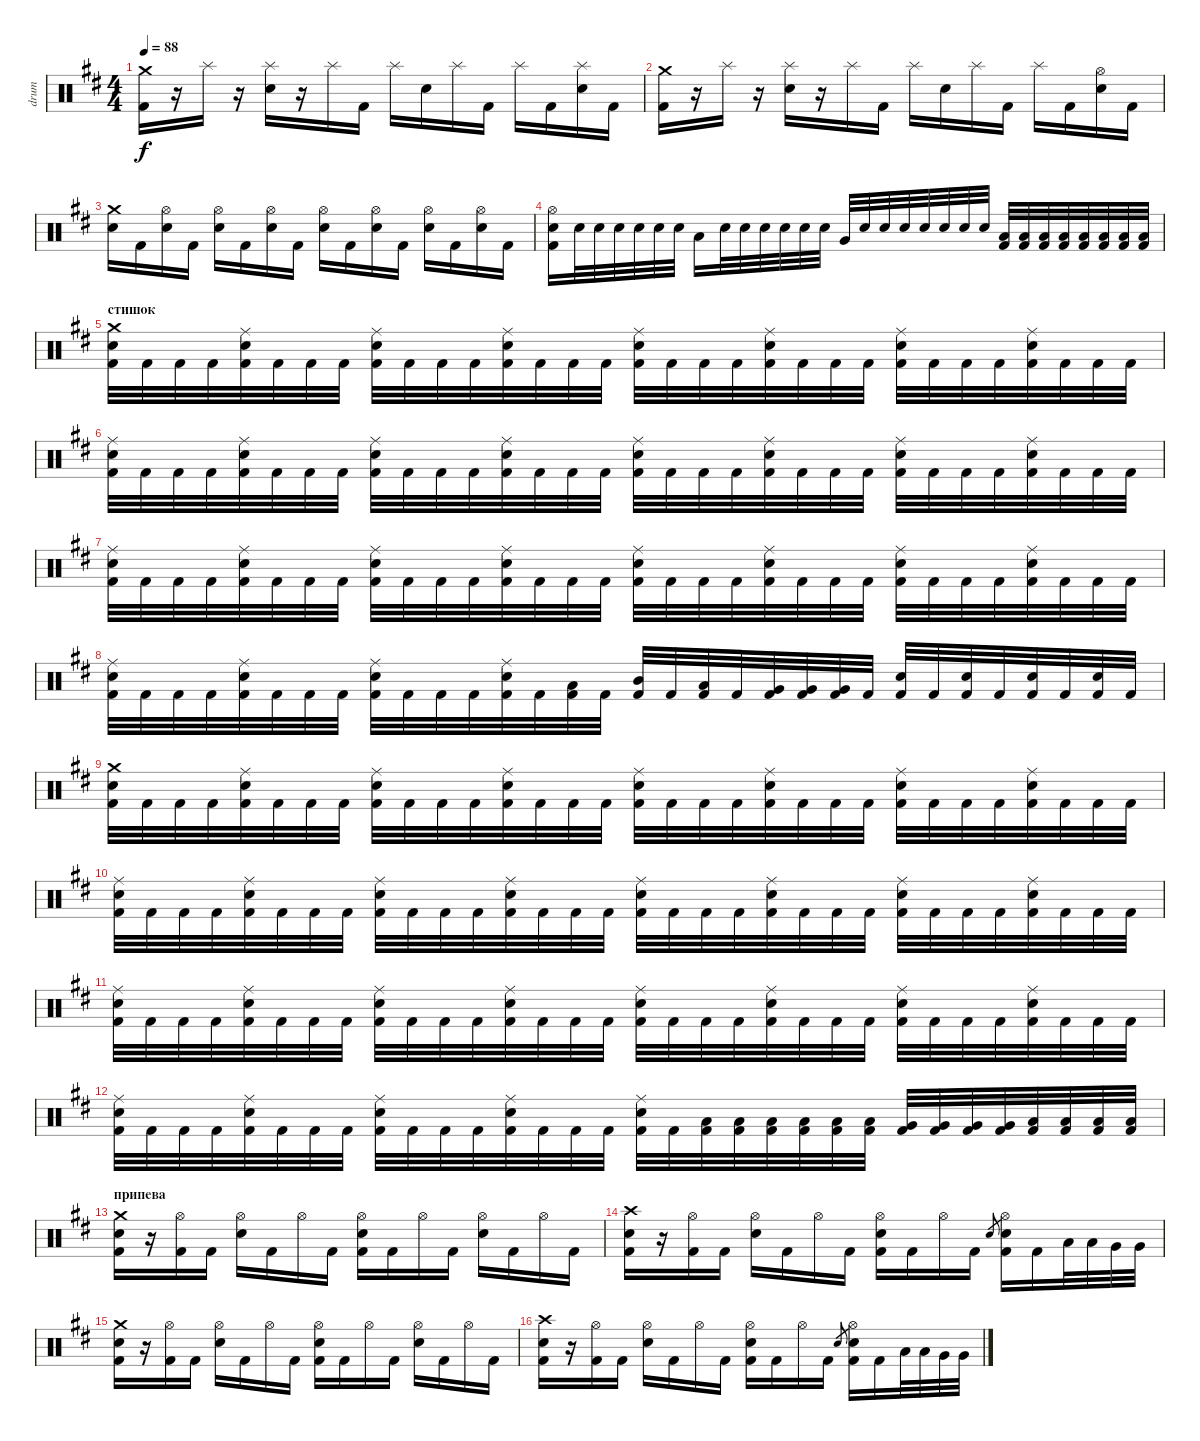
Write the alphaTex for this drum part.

\track ("drum" "drum") {instrument percussion}
\staff {score}
\articulation defaults
\ts (4 4)
\tempo 88
\clef neutral
\ks bminor
("Crash medium (hit)" "Kick (hit) 2").16{dy f} r.16 "Splash (hit)".16 r.16 ("Splash (hit)" "Electric Snare (hit)").16 r.16 "Splash (hit)".16 "Kick (hit) 2".16 "Splash (hit)".16 "Electric Snare (hit)".16 "Splash (hit)".16 "Kick (hit) 2".16 "Splash (hit)".16 "Kick (hit) 2".16 ("Splash (hit)" "Electric Snare (hit)").16 "Kick (hit) 2".16 |
("Crash medium (hit)" "Kick (hit) 2").16 r.16 "Splash (hit)".16 r.16 ("Splash (hit)" "Electric Snare (hit)").16 r.16 "Splash (hit)".16 "Kick (hit) 2".16 "Splash (hit)".16 "Electric Snare (hit)".16 "Splash (hit)".16 "Kick (hit) 2".16 "Splash (hit)".16 "Kick (hit) 2".16 ("Hi-Hat (open)" "Electric Snare (hit)").16 "Kick (hit) 2".16 |
("Crash medium (hit)" "Electric Snare (hit)").16 "Kick (hit) 2".16 ("Hi-Hat (open)" "Electric Snare (hit)").16 "Kick (hit) 2".16 ("Hi-Hat (open)" "Electric Snare (hit)").16 "Kick (hit) 2".16 ("Hi-Hat (open)" "Electric Snare (hit)").16 "Kick (hit) 2".16 ("Hi-Hat (open)" "Electric Snare (hit)").16 "Kick (hit) 2".16 ("Hi-Hat (open)" "Electric Snare (hit)").16 "Kick (hit) 2".16 ("Hi-Hat (open)" "Electric Snare (hit)").16 "Kick (hit) 2".16 ("Hi-Hat (open)" "Electric Snare (hit)").16 "Kick (hit) 2".16 |
("Hi-Hat (open)" "Electric Snare (hit)" "Kick (hit) 2").16 "Electric Snare (hit)".32 "Electric Snare (hit)".32 "Electric Snare (hit)".32 "Electric Snare (hit)".32 "Electric Snare (hit)".32 "Electric Snare (hit)".32 "Low Tom (hit)".16 "Electric Snare (hit)".32 "Electric Snare (hit)".32 "Electric Snare (hit)".32 "Electric Snare (hit)".32 "Electric Snare (hit)".32 "Electric Snare (hit)".32 "Very Low Tom (hit)".32 "Electric Snare (hit)".32 "Electric Snare (hit)".32 "Electric Snare (hit)".32 "Electric Snare (hit)".32 "Electric Snare (hit)".32 "Electric Snare (hit)".32 "Electric Snare (hit)".32 ("Low Floor Tom (hit)" "Kick (hit) 2").32 ("Low Floor Tom (hit)" "Kick (hit) 2").32 ("Low Floor Tom (hit)" "Kick (hit) 2").32 ("Low Floor Tom (hit)" "Kick (hit) 2").32 ("Low Floor Tom (hit)" "Kick (hit) 2").32 ("Low Floor Tom (hit)" "Kick (hit) 2").32 ("Low Floor Tom (hit)" "Kick (hit) 2").32 ("Low Floor Tom (hit)" "Kick (hit) 2").32 |
\section ("" "стишок")
("Crash medium (hit)" "Electric Snare (hit)" "Kick (hit) 2").32 "Kick (hit) 2".32 "Kick (hit) 2".32 "Kick (hit) 2".32 ("Ride (middle)" "Electric Snare (hit)" "Kick (hit) 2").32 "Kick (hit) 2".32 "Kick (hit) 2".32 "Kick (hit) 2".32 ("Ride (middle)" "Electric Snare (hit)" "Kick (hit) 2").32 "Kick (hit) 2".32 "Kick (hit) 2".32 "Kick (hit) 2".32 ("Ride (middle)" "Electric Snare (hit)" "Kick (hit) 2").32 "Kick (hit) 2".32 "Kick (hit) 2".32 "Kick (hit) 2".32 ("Ride (middle)" "Electric Snare (hit)" "Kick (hit) 2").32 "Kick (hit) 2".32 "Kick (hit) 2".32 "Kick (hit) 2".32 ("Ride (middle)" "Electric Snare (hit)" "Kick (hit) 2").32 "Kick (hit) 2".32 "Kick (hit) 2".32 "Kick (hit) 2".32 ("Ride (middle)" "Electric Snare (hit)" "Kick (hit) 2").32 "Kick (hit) 2".32 "Kick (hit) 2".32 "Kick (hit) 2".32 ("Ride (middle)" "Electric Snare (hit)" "Kick (hit) 2").32 "Kick (hit) 2".32 "Kick (hit) 2".32 "Kick (hit) 2".32 |
("Ride (middle)" "Electric Snare (hit)" "Kick (hit) 2").32 "Kick (hit) 2".32 "Kick (hit) 2".32 "Kick (hit) 2".32 ("Ride (middle)" "Electric Snare (hit)" "Kick (hit) 2").32 "Kick (hit) 2".32 "Kick (hit) 2".32 "Kick (hit) 2".32 ("Ride (middle)" "Electric Snare (hit)" "Kick (hit) 2").32 "Kick (hit) 2".32 "Kick (hit) 2".32 "Kick (hit) 2".32 ("Ride (middle)" "Electric Snare (hit)" "Kick (hit) 2").32 "Kick (hit) 2".32 "Kick (hit) 2".32 "Kick (hit) 2".32 ("Ride (middle)" "Electric Snare (hit)" "Kick (hit) 2").32 "Kick (hit) 2".32 "Kick (hit) 2".32 "Kick (hit) 2".32 ("Ride (middle)" "Electric Snare (hit)" "Kick (hit) 2").32 "Kick (hit) 2".32 "Kick (hit) 2".32 "Kick (hit) 2".32 ("Ride (middle)" "Electric Snare (hit)" "Kick (hit) 2").32 "Kick (hit) 2".32 "Kick (hit) 2".32 "Kick (hit) 2".32 ("Ride (middle)" "Electric Snare (hit)" "Kick (hit) 2").32 "Kick (hit) 2".32 "Kick (hit) 2".32 "Kick (hit) 2".32 |
("Ride (middle)" "Electric Snare (hit)" "Kick (hit) 2").32 "Kick (hit) 2".32 "Kick (hit) 2".32 "Kick (hit) 2".32 ("Ride (middle)" "Electric Snare (hit)" "Kick (hit) 2").32 "Kick (hit) 2".32 "Kick (hit) 2".32 "Kick (hit) 2".32 ("Ride (middle)" "Electric Snare (hit)" "Kick (hit) 2").32 "Kick (hit) 2".32 "Kick (hit) 2".32 "Kick (hit) 2".32 ("Ride (middle)" "Electric Snare (hit)" "Kick (hit) 2").32 "Kick (hit) 2".32 "Kick (hit) 2".32 "Kick (hit) 2".32 ("Ride (middle)" "Electric Snare (hit)" "Kick (hit) 2").32 "Kick (hit) 2".32 "Kick (hit) 2".32 "Kick (hit) 2".32 ("Ride (middle)" "Electric Snare (hit)" "Kick (hit) 2").32 "Kick (hit) 2".32 "Kick (hit) 2".32 "Kick (hit) 2".32 ("Ride (middle)" "Electric Snare (hit)" "Kick (hit) 2").32 "Kick (hit) 2".32 "Kick (hit) 2".32 "Kick (hit) 2".32 ("Ride (middle)" "Electric Snare (hit)" "Kick (hit) 2").32 "Kick (hit) 2".32 "Kick (hit) 2".32 "Kick (hit) 2".32 |
("Ride (middle)" "Electric Snare (hit)" "Kick (hit) 2").32 "Kick (hit) 2".32 "Kick (hit) 2".32 "Kick (hit) 2".32 ("Ride (middle)" "Electric Snare (hit)" "Kick (hit) 2").32 "Kick (hit) 2".32 "Kick (hit) 2".32 "Kick (hit) 2".32 ("Ride (middle)" "Electric Snare (hit)" "Kick (hit) 2").32 "Kick (hit) 2".32 "Kick (hit) 2".32 "Kick (hit) 2".32 ("Ride (middle)" "Electric Snare (hit)" "Kick (hit) 2").32 "Kick (hit) 2".32 ("Low Tom (hit)" "Kick (hit) 2").32 "Kick (hit) 2".32 ("Mid Tom (hit)" "Kick (hit) 2").32 "Kick (hit) 2".32 ("Low Tom (hit)" "Kick (hit) 2").32 "Kick (hit) 2".32 ("Very Low Tom (hit)" "Kick (hit) 2").32 ("Very Low Tom (hit)" "Kick (hit) 2").32 ("Very Low Tom (hit)" "Kick (hit) 2").32 "Kick (hit) 2".32 ("Electric Snare (hit)" "Kick (hit) 2").32 "Kick (hit) 2".32 ("Electric Snare (hit)" "Kick (hit) 2").32 "Kick (hit) 2".32 ("Electric Snare (hit)" "Kick (hit) 2").32 "Kick (hit) 2".32 ("Electric Snare (hit)" "Kick (hit) 2").32 "Kick (hit) 2".32 |
("Crash medium (hit)" "Electric Snare (hit)" "Kick (hit) 2").32 "Kick (hit) 2".32 "Kick (hit) 2".32 "Kick (hit) 2".32 ("Ride (middle)" "Electric Snare (hit)" "Kick (hit) 2").32 "Kick (hit) 2".32 "Kick (hit) 2".32 "Kick (hit) 2".32 ("Ride (middle)" "Electric Snare (hit)" "Kick (hit) 2").32 "Kick (hit) 2".32 "Kick (hit) 2".32 "Kick (hit) 2".32 ("Ride (middle)" "Electric Snare (hit)" "Kick (hit) 2").32 "Kick (hit) 2".32 "Kick (hit) 2".32 "Kick (hit) 2".32 ("Ride (middle)" "Electric Snare (hit)" "Kick (hit) 2").32 "Kick (hit) 2".32 "Kick (hit) 2".32 "Kick (hit) 2".32 ("Ride (middle)" "Electric Snare (hit)" "Kick (hit) 2").32 "Kick (hit) 2".32 "Kick (hit) 2".32 "Kick (hit) 2".32 ("Ride (middle)" "Electric Snare (hit)" "Kick (hit) 2").32 "Kick (hit) 2".32 "Kick (hit) 2".32 "Kick (hit) 2".32 ("Ride (middle)" "Electric Snare (hit)" "Kick (hit) 2").32 "Kick (hit) 2".32 "Kick (hit) 2".32 "Kick (hit) 2".32 |
("Ride (middle)" "Electric Snare (hit)" "Kick (hit) 2").32 "Kick (hit) 2".32 "Kick (hit) 2".32 "Kick (hit) 2".32 ("Ride (middle)" "Electric Snare (hit)" "Kick (hit) 2").32 "Kick (hit) 2".32 "Kick (hit) 2".32 "Kick (hit) 2".32 ("Ride (middle)" "Electric Snare (hit)" "Kick (hit) 2").32 "Kick (hit) 2".32 "Kick (hit) 2".32 "Kick (hit) 2".32 ("Ride (middle)" "Electric Snare (hit)" "Kick (hit) 2").32 "Kick (hit) 2".32 "Kick (hit) 2".32 "Kick (hit) 2".32 ("Ride (middle)" "Electric Snare (hit)" "Kick (hit) 2").32 "Kick (hit) 2".32 "Kick (hit) 2".32 "Kick (hit) 2".32 ("Ride (middle)" "Electric Snare (hit)" "Kick (hit) 2").32 "Kick (hit) 2".32 "Kick (hit) 2".32 "Kick (hit) 2".32 ("Ride (middle)" "Electric Snare (hit)" "Kick (hit) 2").32 "Kick (hit) 2".32 "Kick (hit) 2".32 "Kick (hit) 2".32 ("Ride (middle)" "Electric Snare (hit)" "Kick (hit) 2").32 "Kick (hit) 2".32 "Kick (hit) 2".32 "Kick (hit) 2".32 |
("Ride (middle)" "Electric Snare (hit)" "Kick (hit) 2").32 "Kick (hit) 2".32 "Kick (hit) 2".32 "Kick (hit) 2".32 ("Ride (middle)" "Electric Snare (hit)" "Kick (hit) 2").32 "Kick (hit) 2".32 "Kick (hit) 2".32 "Kick (hit) 2".32 ("Ride (middle)" "Electric Snare (hit)" "Kick (hit) 2").32 "Kick (hit) 2".32 "Kick (hit) 2".32 "Kick (hit) 2".32 ("Ride (middle)" "Electric Snare (hit)" "Kick (hit) 2").32 "Kick (hit) 2".32 "Kick (hit) 2".32 "Kick (hit) 2".32 ("Ride (middle)" "Electric Snare (hit)" "Kick (hit) 2").32 "Kick (hit) 2".32 "Kick (hit) 2".32 "Kick (hit) 2".32 ("Ride (middle)" "Electric Snare (hit)" "Kick (hit) 2").32 "Kick (hit) 2".32 "Kick (hit) 2".32 "Kick (hit) 2".32 ("Ride (middle)" "Electric Snare (hit)" "Kick (hit) 2").32 "Kick (hit) 2".32 "Kick (hit) 2".32 "Kick (hit) 2".32 ("Ride (middle)" "Electric Snare (hit)" "Kick (hit) 2").32 "Kick (hit) 2".32 "Kick (hit) 2".32 "Kick (hit) 2".32 |
("Ride (middle)" "Electric Snare (hit)" "Kick (hit) 2").32 "Kick (hit) 2".32 "Kick (hit) 2".32 "Kick (hit) 2".32 ("Ride (middle)" "Electric Snare (hit)" "Kick (hit) 2").32 "Kick (hit) 2".32 "Kick (hit) 2".32 "Kick (hit) 2".32 ("Ride (middle)" "Electric Snare (hit)" "Kick (hit) 2").32 "Kick (hit) 2".32 "Kick (hit) 2".32 "Kick (hit) 2".32 ("Ride (middle)" "Electric Snare (hit)" "Kick (hit) 2").32 "Kick (hit) 2".32 "Kick (hit) 2".32 "Kick (hit) 2".32 ("Ride (middle)" "Electric Snare (hit)" "Kick (hit) 2").32 "Kick (hit) 2".32 ("Low Tom (hit)" "Kick (hit) 2").32 ("Low Tom (hit)" "Kick (hit) 2").32 ("Low Tom (hit)" "Kick (hit) 2").32 ("Low Tom (hit)" "Kick (hit) 2").32 ("Low Tom (hit)" "Kick (hit) 2").32 ("Low Tom (hit)" "Kick (hit) 2").32 ("Very Low Tom (hit)" "Kick (hit) 2").32 ("Very Low Tom (hit)" "Kick (hit) 2").32 ("Very Low Tom (hit)" "Kick (hit) 2").32 ("Very Low Tom (hit)" "Kick (hit) 2").32 ("Low Floor Tom (hit)" "Kick (hit) 2").32 ("Low Floor Tom (hit)" "Kick (hit) 2").32 ("Low Floor Tom (hit)" "Kick (hit) 2").32 ("Low Floor Tom (hit)" "Kick (hit) 2").32 |
\section ("" "припева")
("Crash medium (hit)" "Electric Snare (hit)" "Kick (hit) 2").16 r.16 ("Hi-Hat (open)" "Kick (hit) 2").16 "Kick (hit) 2".16 ("Hi-Hat (open)" "Electric Snare (hit)").16 "Kick (hit) 2".16 "Hi-Hat (open)".16 "Kick (hit) 2".16 ("Hi-Hat (open)" "Electric Snare (hit)" "Kick (hit) 2").16 "Kick (hit) 2".16 "Hi-Hat (open)".16 "Kick (hit) 2".16 ("Hi-Hat (open)" "Electric Snare (hit)").16 "Kick (hit) 2".16 "Hi-Hat (open)".16 "Kick (hit) 2".16 |
("Crash high (hit)" "Electric Snare (hit)" "Kick (hit) 2").16 r.16 ("Hi-Hat (open)" "Kick (hit) 2").16 "Kick (hit) 2".16 ("Hi-Hat (open)" "Electric Snare (hit)").16 "Kick (hit) 2".16 "Hi-Hat (open)".16 "Kick (hit) 2".16 ("Hi-Hat (open)" "Electric Snare (hit)" "Kick (hit) 2").16 "Kick (hit) 2".16 "Hi-Hat (open)".16 "Kick (hit) 2".16 "Electric Snare (hit)".8{gr} ("Hi-Hat (open)" "Electric Snare (hit)" "Kick (hit) 2").16 "Kick (hit) 2".16 "Low Tom (hit)".32 "Low Tom (hit)".32 "Very Low Tom (hit)".32 "Very Low Tom (hit)".32 |
("Crash medium (hit)" "Electric Snare (hit)" "Kick (hit) 2").16 r.16 ("Hi-Hat (open)" "Kick (hit) 2").16 "Kick (hit) 2".16 ("Hi-Hat (open)" "Electric Snare (hit)").16 "Kick (hit) 2".16 "Hi-Hat (open)".16 "Kick (hit) 2".16 ("Hi-Hat (open)" "Electric Snare (hit)" "Kick (hit) 2").16 "Kick (hit) 2".16 "Hi-Hat (open)".16 "Kick (hit) 2".16 ("Hi-Hat (open)" "Electric Snare (hit)").16 "Kick (hit) 2".16 "Hi-Hat (open)".16 "Kick (hit) 2".16 |
("Crash high (hit)" "Electric Snare (hit)" "Kick (hit) 2").16 r.16 ("Hi-Hat (open)" "Kick (hit) 2").16 "Kick (hit) 2".16 ("Hi-Hat (open)" "Electric Snare (hit)").16 "Kick (hit) 2".16 "Hi-Hat (open)".16 "Kick (hit) 2".16 ("Hi-Hat (open)" "Electric Snare (hit)" "Kick (hit) 2").16 "Kick (hit) 2".16 "Hi-Hat (open)".16 "Kick (hit) 2".16 "Electric Snare (hit)".8{gr} ("Hi-Hat (open)" "Electric Snare (hit)" "Kick (hit) 2").16 "Kick (hit) 2".16 "Low Tom (hit)".32 "Low Tom (hit)".32 "Very Low Tom (hit)".32 "Very Low Tom (hit)".32
